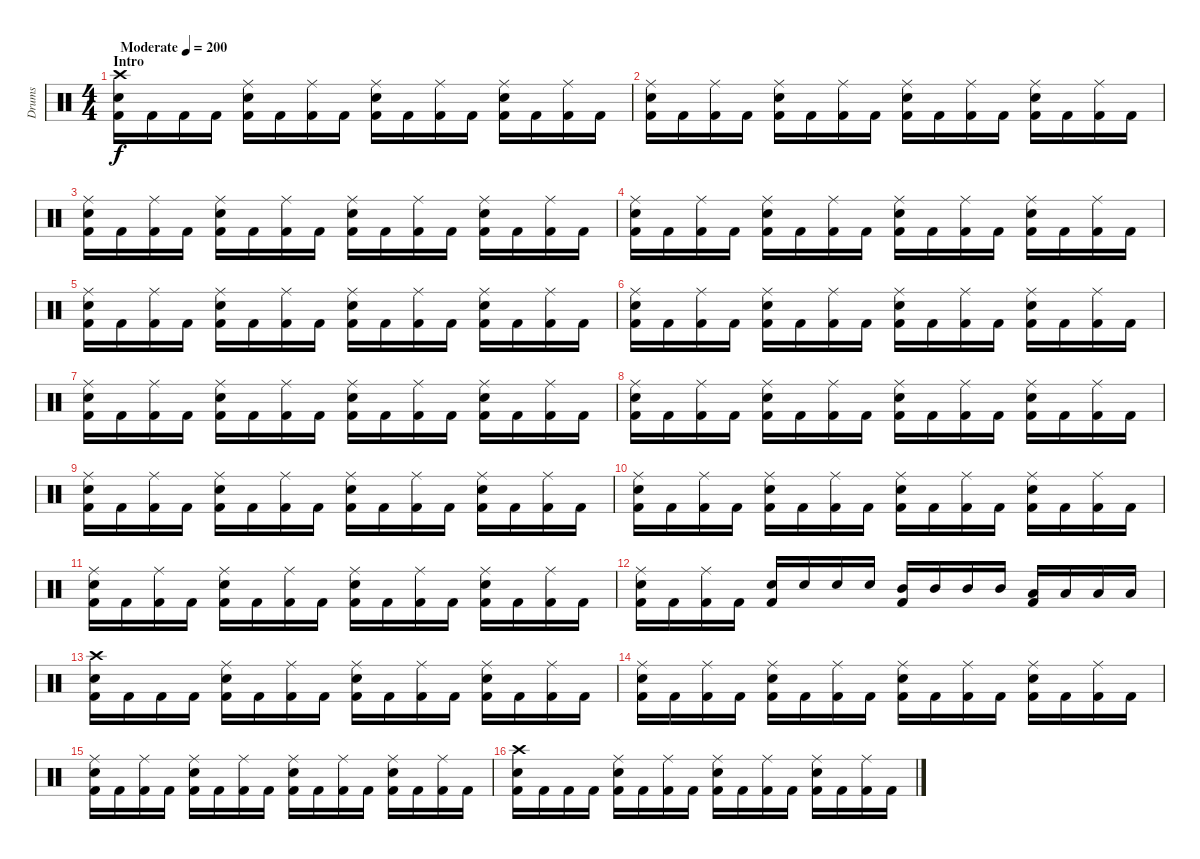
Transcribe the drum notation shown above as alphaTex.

\track ("Drums" "Drums") {instrument percussion}
\staff {score}
\articulation defaults
\ts (4 4)
\section ("" "Intro")
\tempo (200 "Moderate")
\clef neutral
\ks c
("Crash high (hit)" "Snare (hit) 2" "Kick (hit) 2").16{dy f} "Kick (hit) 2".16 "Kick (hit) 2".16 "Kick (hit) 2".16 ("Ride (middle)" "Snare (hit) 2" "Kick (hit) 2").16 "Kick (hit) 2".16 ("Ride (middle)" "Kick (hit) 2").16 "Kick (hit) 2".16 ("Ride (middle)" "Snare (hit) 2" "Kick (hit) 2").16 "Kick (hit) 2".16 ("Ride (middle)" "Kick (hit) 2").16 "Kick (hit) 2".16 ("Ride (middle)" "Snare (hit) 2" "Kick (hit) 2").16 "Kick (hit) 2".16 ("Ride (middle)" "Kick (hit) 2").16 "Kick (hit) 2".16 |
("Ride (middle)" "Snare (hit) 2" "Kick (hit) 2").16 "Kick (hit) 2".16 ("Ride (middle)" "Kick (hit) 2").16 "Kick (hit) 2".16 ("Ride (middle)" "Snare (hit) 2" "Kick (hit) 2").16 "Kick (hit) 2".16 ("Ride (middle)" "Kick (hit) 2").16 "Kick (hit) 2".16 ("Ride (middle)" "Snare (hit) 2" "Kick (hit) 2").16 "Kick (hit) 2".16 ("Ride (middle)" "Kick (hit) 2").16 "Kick (hit) 2".16 ("Ride (middle)" "Snare (hit) 2" "Kick (hit) 2").16 "Kick (hit) 2".16 ("Ride (middle)" "Kick (hit) 2").16 "Kick (hit) 2".16 |
("Ride (middle)" "Snare (hit) 2" "Kick (hit) 2").16 "Kick (hit) 2".16 ("Ride (middle)" "Kick (hit) 2").16 "Kick (hit) 2".16 ("Ride (middle)" "Snare (hit) 2" "Kick (hit) 2").16 "Kick (hit) 2".16 ("Ride (middle)" "Kick (hit) 2").16 "Kick (hit) 2".16 ("Ride (middle)" "Snare (hit) 2" "Kick (hit) 2").16 "Kick (hit) 2".16 ("Ride (middle)" "Kick (hit) 2").16 "Kick (hit) 2".16 ("Ride (middle)" "Snare (hit) 2" "Kick (hit) 2").16 "Kick (hit) 2".16 ("Ride (middle)" "Kick (hit) 2").16 "Kick (hit) 2".16 |
("Ride (middle)" "Snare (hit) 2" "Kick (hit) 2").16 "Kick (hit) 2".16 ("Ride (middle)" "Kick (hit) 2").16 "Kick (hit) 2".16 ("Ride (middle)" "Snare (hit) 2" "Kick (hit) 2").16 "Kick (hit) 2".16 ("Ride (middle)" "Kick (hit) 2").16 "Kick (hit) 2".16 ("Ride (middle)" "Snare (hit) 2" "Kick (hit) 2").16 "Kick (hit) 2".16 ("Ride (middle)" "Kick (hit) 2").16 "Kick (hit) 2".16 ("Ride (middle)" "Snare (hit) 2" "Kick (hit) 2").16 "Kick (hit) 2".16 ("Ride (middle)" "Kick (hit) 2").16 "Kick (hit) 2".16 |
("Ride (middle)" "Snare (hit) 2" "Kick (hit) 2").16 "Kick (hit) 2".16 ("Ride (middle)" "Kick (hit) 2").16 "Kick (hit) 2".16 ("Ride (middle)" "Snare (hit) 2" "Kick (hit) 2").16 "Kick (hit) 2".16 ("Ride (middle)" "Kick (hit) 2").16 "Kick (hit) 2".16 ("Ride (middle)" "Snare (hit) 2" "Kick (hit) 2").16 "Kick (hit) 2".16 ("Ride (middle)" "Kick (hit) 2").16 "Kick (hit) 2".16 ("Ride (middle)" "Snare (hit) 2" "Kick (hit) 2").16 "Kick (hit) 2".16 ("Ride (middle)" "Kick (hit) 2").16 "Kick (hit) 2".16 |
("Ride (middle)" "Snare (hit) 2" "Kick (hit) 2").16 "Kick (hit) 2".16 ("Ride (middle)" "Kick (hit) 2").16 "Kick (hit) 2".16 ("Ride (middle)" "Snare (hit) 2" "Kick (hit) 2").16 "Kick (hit) 2".16 ("Ride (middle)" "Kick (hit) 2").16 "Kick (hit) 2".16 ("Ride (middle)" "Snare (hit) 2" "Kick (hit) 2").16 "Kick (hit) 2".16 ("Ride (middle)" "Kick (hit) 2").16 "Kick (hit) 2".16 ("Ride (middle)" "Snare (hit) 2" "Kick (hit) 2").16 "Kick (hit) 2".16 ("Ride (middle)" "Kick (hit) 2").16 "Kick (hit) 2".16 |
("Ride (middle)" "Snare (hit) 2" "Kick (hit) 2").16 "Kick (hit) 2".16 ("Ride (middle)" "Kick (hit) 2").16 "Kick (hit) 2".16 ("Ride (middle)" "Snare (hit) 2" "Kick (hit) 2").16 "Kick (hit) 2".16 ("Ride (middle)" "Kick (hit) 2").16 "Kick (hit) 2".16 ("Ride (middle)" "Snare (hit) 2" "Kick (hit) 2").16 "Kick (hit) 2".16 ("Ride (middle)" "Kick (hit) 2").16 "Kick (hit) 2".16 ("Ride (middle)" "Snare (hit) 2" "Kick (hit) 2").16 "Kick (hit) 2".16 ("Ride (middle)" "Kick (hit) 2").16 "Kick (hit) 2".16 |
("Ride (middle)" "Snare (hit) 2" "Kick (hit) 2").16 "Kick (hit) 2".16 ("Ride (middle)" "Kick (hit) 2").16 "Kick (hit) 2".16 ("Ride (middle)" "Snare (hit) 2" "Kick (hit) 2").16 "Kick (hit) 2".16 ("Ride (middle)" "Kick (hit) 2").16 "Kick (hit) 2".16 ("Ride (middle)" "Snare (hit) 2" "Kick (hit) 2").16 "Kick (hit) 2".16 ("Ride (middle)" "Kick (hit) 2").16 "Kick (hit) 2".16 ("Ride (middle)" "Snare (hit) 2" "Kick (hit) 2").16 "Kick (hit) 2".16 ("Ride (middle)" "Kick (hit) 2").16 "Kick (hit) 2".16 |
("Ride (middle)" "Snare (hit) 2" "Kick (hit) 2").16 "Kick (hit) 2".16 ("Ride (middle)" "Kick (hit) 2").16 "Kick (hit) 2".16 ("Ride (middle)" "Snare (hit) 2" "Kick (hit) 2").16 "Kick (hit) 2".16 ("Ride (middle)" "Kick (hit) 2").16 "Kick (hit) 2".16 ("Ride (middle)" "Snare (hit) 2" "Kick (hit) 2").16 "Kick (hit) 2".16 ("Ride (middle)" "Kick (hit) 2").16 "Kick (hit) 2".16 ("Ride (middle)" "Snare (hit) 2" "Kick (hit) 2").16 "Kick (hit) 2".16 ("Ride (middle)" "Kick (hit) 2").16 "Kick (hit) 2".16 |
("Ride (middle)" "Snare (hit) 2" "Kick (hit) 2").16 "Kick (hit) 2".16 ("Ride (middle)" "Kick (hit) 2").16 "Kick (hit) 2".16 ("Ride (middle)" "Snare (hit) 2" "Kick (hit) 2").16 "Kick (hit) 2".16 ("Ride (middle)" "Kick (hit) 2").16 "Kick (hit) 2".16 ("Ride (middle)" "Snare (hit) 2" "Kick (hit) 2").16 "Kick (hit) 2".16 ("Ride (middle)" "Kick (hit) 2").16 "Kick (hit) 2".16 ("Ride (middle)" "Snare (hit) 2" "Kick (hit) 2").16 "Kick (hit) 2".16 ("Ride (middle)" "Kick (hit) 2").16 "Kick (hit) 2".16 |
("Ride (middle)" "Snare (hit) 2" "Kick (hit) 2").16 "Kick (hit) 2".16 ("Ride (middle)" "Kick (hit) 2").16 "Kick (hit) 2".16 ("Ride (middle)" "Snare (hit) 2" "Kick (hit) 2").16 "Kick (hit) 2".16 ("Ride (middle)" "Kick (hit) 2").16 "Kick (hit) 2".16 ("Ride (middle)" "Snare (hit) 2" "Kick (hit) 2").16 "Kick (hit) 2".16 ("Ride (middle)" "Kick (hit) 2").16 "Kick (hit) 2".16 ("Ride (middle)" "Snare (hit) 2" "Kick (hit) 2").16 "Kick (hit) 2".16 ("Ride (middle)" "Kick (hit) 2").16 "Kick (hit) 2".16 |
("Ride (middle)" "Snare (hit) 2" "Kick (hit) 2").16 "Kick (hit) 2".16 ("Ride (middle)" "Kick (hit) 2").16 "Kick (hit) 2".16 ("Snare (hit) 2" "Kick (hit) 2").16 "Snare (hit) 2".16 "Snare (hit) 2".16 "Snare (hit) 2".16 ("Mid Tom (hit)" "Kick (hit) 2").16 "Mid Tom (hit)".16 "Mid Tom (hit)".16 "Mid Tom (hit)".16 ("Low Tom (hit)" "Kick (hit) 2").16 "Low Tom (hit)".16 "Low Tom (hit)".16 "Low Tom (hit)".16 |
("Crash high (hit)" "Snare (hit) 2" "Kick (hit) 2").16 "Kick (hit) 2".16 "Kick (hit) 2".16 "Kick (hit) 2".16 ("Ride (middle)" "Snare (hit) 2" "Kick (hit) 2").16 "Kick (hit) 2".16 ("Ride (middle)" "Kick (hit) 2").16 "Kick (hit) 2".16 ("Ride (middle)" "Snare (hit) 2" "Kick (hit) 2").16 "Kick (hit) 2".16 ("Ride (middle)" "Kick (hit) 2").16 "Kick (hit) 2".16 ("Ride (middle)" "Snare (hit) 2" "Kick (hit) 2").16 "Kick (hit) 2".16 ("Ride (middle)" "Kick (hit) 2").16 "Kick (hit) 2".16 |
("Ride (middle)" "Snare (hit) 2" "Kick (hit) 2").16 "Kick (hit) 2".16 ("Ride (middle)" "Kick (hit) 2").16 "Kick (hit) 2".16 ("Ride (middle)" "Snare (hit) 2" "Kick (hit) 2").16 "Kick (hit) 2".16 ("Ride (middle)" "Kick (hit) 2").16 "Kick (hit) 2".16 ("Ride (middle)" "Snare (hit) 2" "Kick (hit) 2").16 "Kick (hit) 2".16 ("Ride (middle)" "Kick (hit) 2").16 "Kick (hit) 2".16 ("Ride (middle)" "Snare (hit) 2" "Kick (hit) 2").16 "Kick (hit) 2".16 ("Ride (middle)" "Kick (hit) 2").16 "Kick (hit) 2".16 |
("Ride (middle)" "Snare (hit) 2" "Kick (hit) 2").16 "Kick (hit) 2".16 ("Ride (middle)" "Kick (hit) 2").16 "Kick (hit) 2".16 ("Ride (middle)" "Snare (hit) 2" "Kick (hit) 2").16 "Kick (hit) 2".16 ("Ride (middle)" "Kick (hit) 2").16 "Kick (hit) 2".16 ("Ride (middle)" "Snare (hit) 2" "Kick (hit) 2").16 "Kick (hit) 2".16 ("Ride (middle)" "Kick (hit) 2").16 "Kick (hit) 2".16 ("Ride (middle)" "Snare (hit) 2" "Kick (hit) 2").16 "Kick (hit) 2".16 ("Ride (middle)" "Kick (hit) 2").16 "Kick (hit) 2".16 |
("Crash high (hit)" "Snare (hit) 2" "Kick (hit) 2").16 "Kick (hit) 2".16 "Kick (hit) 2".16 "Kick (hit) 2".16 ("Ride (middle)" "Snare (hit) 2" "Kick (hit) 2").16 "Kick (hit) 2".16 ("Ride (middle)" "Kick (hit) 2").16 "Kick (hit) 2".16 ("Ride (middle)" "Snare (hit) 2" "Kick (hit) 2").16 "Kick (hit) 2".16 ("Ride (middle)" "Kick (hit) 2").16 "Kick (hit) 2".16 ("Ride (middle)" "Snare (hit) 2" "Kick (hit) 2").16 "Kick (hit) 2".16 ("Ride (middle)" "Kick (hit) 2").16 "Kick (hit) 2".16
